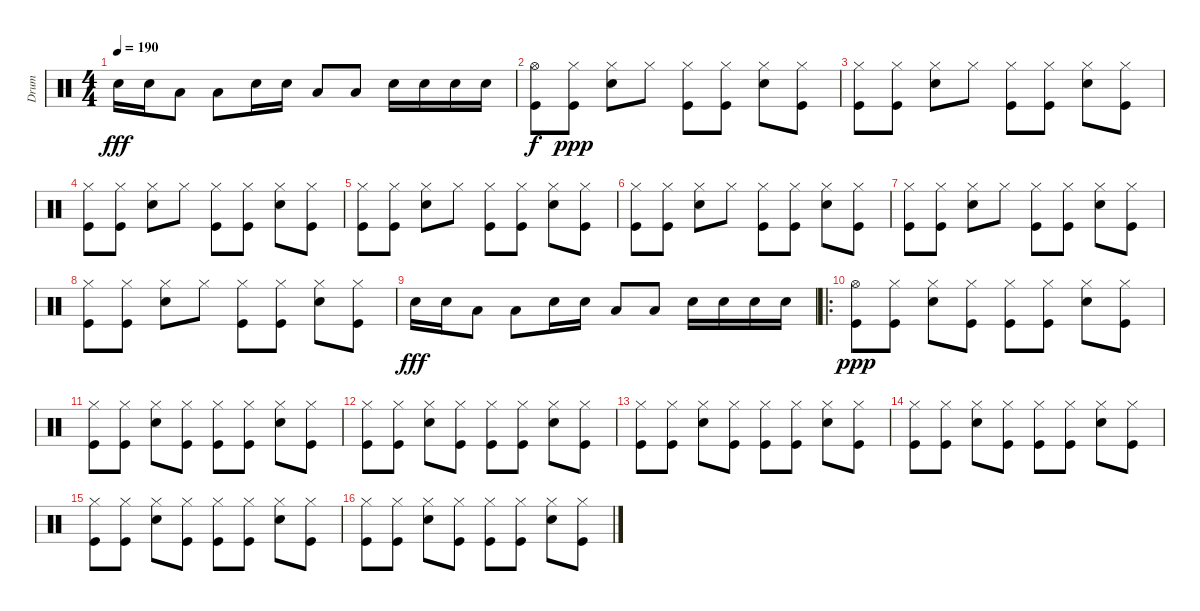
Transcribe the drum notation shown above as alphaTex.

\track ("Drum" "Drum") {instrument percussion}
\staff {score}
\articulation defaults
\ts (4 4)
\tempo 190
\clef neutral
\ks c "Snare (hit) 2".16{dy fff} "Snare (hit) 2".16 "Low Tom (hit)".8 "Low Tom (hit)".8 "Snare (hit) 2".16 "Snare (hit) 2".16 "Low Tom (hit)".8 "Low Tom (hit)".8 "Snare (hit) 2".16 "Snare (hit) 2".16 "Snare (hit) 2".16 "Snare (hit) 2".16
|
("Hi-Hat (open)" "Kick (hit)").8{dy f} ("Hi-Hat (closed)" "Kick (hit)").8{dy ppp} ("Hi-Hat (closed)" "Snare (hit) 2").8 "Hi-Hat (closed)".8 ("Hi-Hat (closed)" "Kick (hit)").8 ("Hi-Hat (closed)" "Kick (hit)").8 ("Hi-Hat (closed)" "Snare (hit) 2").8 ("Hi-Hat (closed)" "Kick (hit)").8 |
("Hi-Hat (closed)" "Kick (hit)").8 ("Hi-Hat (closed)" "Kick (hit)").8 ("Hi-Hat (closed)" "Snare (hit) 2").8 "Hi-Hat (closed)".8 ("Hi-Hat (closed)" "Kick (hit)").8 ("Hi-Hat (closed)" "Kick (hit)").8 ("Hi-Hat (closed)" "Snare (hit) 2").8 ("Hi-Hat (closed)" "Kick (hit)").8 |
("Hi-Hat (closed)" "Kick (hit)").8 ("Hi-Hat (closed)" "Kick (hit)").8 ("Hi-Hat (closed)" "Snare (hit) 2").8 "Hi-Hat (closed)".8 ("Hi-Hat (closed)" "Kick (hit)").8 ("Hi-Hat (closed)" "Kick (hit)").8 ("Hi-Hat (closed)" "Snare (hit) 2").8 ("Hi-Hat (closed)" "Kick (hit)").8 |
("Hi-Hat (closed)" "Kick (hit)").8 ("Hi-Hat (closed)" "Kick (hit)").8 ("Hi-Hat (closed)" "Snare (hit) 2").8 "Hi-Hat (closed)".8 ("Hi-Hat (closed)" "Kick (hit)").8 ("Hi-Hat (closed)" "Kick (hit)").8 ("Hi-Hat (closed)" "Snare (hit) 2").8 ("Hi-Hat (closed)" "Kick (hit)").8 |
("Hi-Hat (closed)" "Kick (hit)").8 ("Hi-Hat (closed)" "Kick (hit)").8 ("Hi-Hat (closed)" "Snare (hit) 2").8 "Hi-Hat (closed)".8 ("Hi-Hat (closed)" "Kick (hit)").8 ("Hi-Hat (closed)" "Kick (hit)").8 ("Hi-Hat (closed)" "Snare (hit) 2").8 ("Hi-Hat (closed)" "Kick (hit)").8 |
("Hi-Hat (closed)" "Kick (hit)").8 ("Hi-Hat (closed)" "Kick (hit)").8 ("Hi-Hat (closed)" "Snare (hit) 2").8 "Hi-Hat (closed)".8 ("Hi-Hat (closed)" "Kick (hit)").8 ("Hi-Hat (closed)" "Kick (hit)").8 ("Hi-Hat (closed)" "Snare (hit) 2").8 ("Hi-Hat (closed)" "Kick (hit)").8 |
("Hi-Hat (closed)" "Kick (hit)").8 ("Hi-Hat (closed)" "Kick (hit)").8 ("Hi-Hat (closed)" "Snare (hit) 2").8 "Hi-Hat (closed)".8 ("Hi-Hat (closed)" "Kick (hit)").8 ("Hi-Hat (closed)" "Kick (hit)").8 ("Hi-Hat (closed)" "Snare (hit) 2").8 ("Hi-Hat (closed)" "Kick (hit)").8 |
"Snare (hit) 2".16{dy fff} "Snare (hit) 2".16 "Low Tom (hit)".8 "Low Tom (hit)".8 "Snare (hit) 2".16 "Snare (hit) 2".16 "Low Tom (hit)".8 "Low Tom (hit)".8 "Snare (hit) 2".16 "Snare (hit) 2".16 "Snare (hit) 2".16 "Snare (hit) 2".16 |
\ro
("Hi-Hat (open)" "Kick (hit)").8{dy ppp} ("Hi-Hat (closed)" "Kick (hit)").8 ("Hi-Hat (closed)" "Snare (hit) 2").8 ("Hi-Hat (closed)" "Kick (hit)").8 ("Hi-Hat (closed)" "Kick (hit)").8 ("Hi-Hat (closed)" "Kick (hit)").8 ("Hi-Hat (closed)" "Snare (hit) 2").8 ("Hi-Hat (closed)" "Kick (hit)").8 |
("Hi-Hat (closed)" "Kick (hit)").8 ("Hi-Hat (closed)" "Kick (hit)").8 ("Hi-Hat (closed)" "Snare (hit) 2").8 ("Hi-Hat (closed)" "Kick (hit)").8 ("Hi-Hat (closed)" "Kick (hit)").8 ("Hi-Hat (closed)" "Kick (hit)").8 ("Hi-Hat (closed)" "Snare (hit) 2").8 ("Hi-Hat (closed)" "Kick (hit)").8 |
("Hi-Hat (closed)" "Kick (hit)").8 ("Hi-Hat (closed)" "Kick (hit)").8 ("Hi-Hat (closed)" "Snare (hit) 2").8 ("Hi-Hat (closed)" "Kick (hit)").8 ("Hi-Hat (closed)" "Kick (hit)").8 ("Hi-Hat (closed)" "Kick (hit)").8 ("Hi-Hat (closed)" "Snare (hit) 2").8 ("Hi-Hat (closed)" "Kick (hit)").8 |
("Hi-Hat (closed)" "Kick (hit)").8 ("Hi-Hat (closed)" "Kick (hit)").8 ("Hi-Hat (closed)" "Snare (hit) 2").8 ("Hi-Hat (closed)" "Kick (hit)").8 ("Hi-Hat (closed)" "Kick (hit)").8 ("Hi-Hat (closed)" "Kick (hit)").8 ("Hi-Hat (closed)" "Snare (hit) 2").8 ("Hi-Hat (closed)" "Kick (hit)").8 |
("Hi-Hat (closed)" "Kick (hit)").8 ("Hi-Hat (closed)" "Kick (hit)").8 ("Hi-Hat (closed)" "Snare (hit) 2").8 ("Hi-Hat (closed)" "Kick (hit)").8 ("Hi-Hat (closed)" "Kick (hit)").8 ("Hi-Hat (closed)" "Kick (hit)").8 ("Hi-Hat (closed)" "Snare (hit) 2").8 ("Hi-Hat (closed)" "Kick (hit)").8 |
("Hi-Hat (closed)" "Kick (hit)").8 ("Hi-Hat (closed)" "Kick (hit)").8 ("Hi-Hat (closed)" "Snare (hit) 2").8 ("Hi-Hat (closed)" "Kick (hit)").8 ("Hi-Hat (closed)" "Kick (hit)").8 ("Hi-Hat (closed)" "Kick (hit)").8 ("Hi-Hat (closed)" "Snare (hit) 2").8 ("Hi-Hat (closed)" "Kick (hit)").8 |
("Hi-Hat (closed)" "Kick (hit)").8 ("Hi-Hat (closed)" "Kick (hit)").8 ("Hi-Hat (closed)" "Snare (hit) 2").8 ("Hi-Hat (closed)" "Kick (hit)").8 ("Hi-Hat (closed)" "Kick (hit)").8 ("Hi-Hat (closed)" "Kick (hit)").8 ("Hi-Hat (closed)" "Snare (hit) 2").8 ("Hi-Hat (closed)" "Kick (hit)").8
